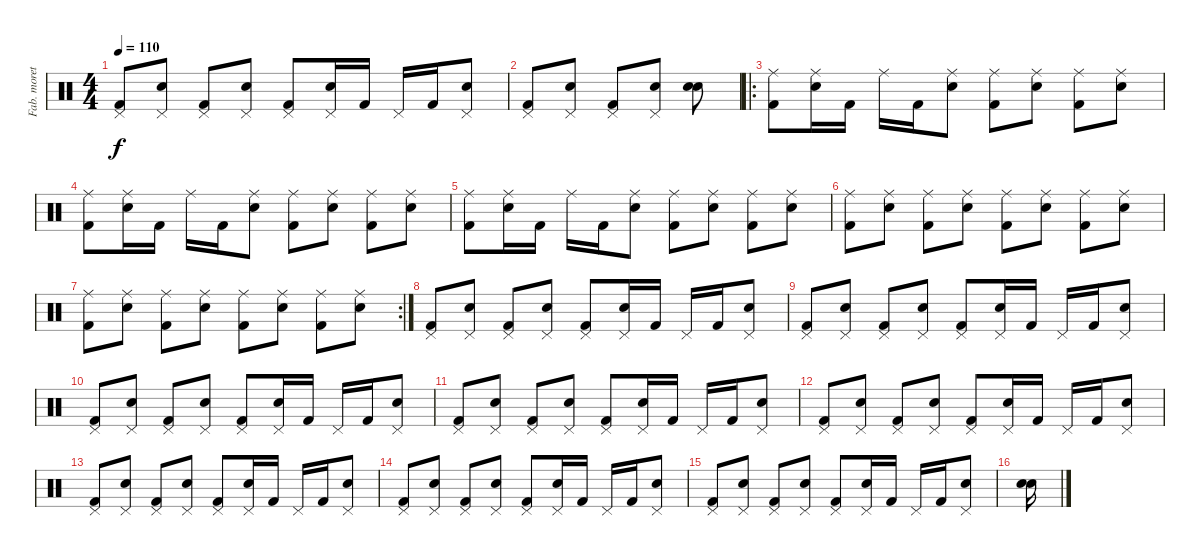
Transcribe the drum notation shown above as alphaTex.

\track ("Fab. moretti" "Fab. moret") {instrument percussion}
\staff {score}
\articulation defaults
\ts (4 4)
\tempo 110
\clef neutral
\ks c
("Pedal Hi-Hat (hit)" "Kick (hit) 2").8{dy f} ("Pedal Hi-Hat (hit)" "Electric Snare (hit)").8 ("Pedal Hi-Hat (hit)" "Kick (hit) 2").8 ("Pedal Hi-Hat (hit)" "Electric Snare (hit)").8 ("Pedal Hi-Hat (hit)" "Kick (hit) 2").8 ("Pedal Hi-Hat (hit)" "Electric Snare (hit)").16 "Kick (hit) 2".16 "Pedal Hi-Hat (hit)".16 "Kick (hit) 2".16 ("Pedal Hi-Hat (hit)" "Electric Snare (hit)").8 |
("Pedal Hi-Hat (hit)" "Kick (hit) 2").8 ("Pedal Hi-Hat (hit)" "Electric Snare (hit)").8 ("Pedal Hi-Hat (hit)" "Kick (hit) 2").8 ("Pedal Hi-Hat (hit)" "Electric Snare (hit)").8 ("Electric Snare (hit)" "Electric Snare (hit)").8 |
\ro
("Ride (middle)" "Kick (hit) 2").8 ("Ride (middle)" "Electric Snare (hit)").16 "Kick (hit) 2".16 "Ride (middle)".16 "Kick (hit) 2".16 ("Ride (middle)" "Electric Snare (hit)").8 ("Ride (middle)" "Kick (hit) 2").8 ("Ride (middle)" "Electric Snare (hit)").8 ("Ride (middle)" "Kick (hit) 2").8 ("Ride (middle)" "Electric Snare (hit)").8 |
("Ride (middle)" "Kick (hit) 2").8 ("Ride (middle)" "Electric Snare (hit)").16 "Kick (hit) 2".16 "Ride (middle)".16 "Kick (hit) 2".16 ("Ride (middle)" "Electric Snare (hit)").8 ("Ride (middle)" "Kick (hit) 2").8 ("Ride (middle)" "Electric Snare (hit)").8 ("Ride (middle)" "Kick (hit) 2").8 ("Ride (middle)" "Electric Snare (hit)").8 |
("Ride (middle)" "Kick (hit) 2").8 ("Ride (middle)" "Electric Snare (hit)").16 "Kick (hit) 2".16 "Ride (middle)".16 "Kick (hit) 2".16 ("Ride (middle)" "Electric Snare (hit)").8 ("Ride (middle)" "Kick (hit) 2").8 ("Ride (middle)" "Electric Snare (hit)").8 ("Ride (middle)" "Kick (hit) 2").8 ("Ride (middle)" "Electric Snare (hit)").8 |
("Ride (middle)" "Kick (hit) 2").8 ("Ride (middle)" "Electric Snare (hit)").8 ("Ride (middle)" "Kick (hit) 2").8 ("Ride (middle)" "Electric Snare (hit)").8 ("Ride (middle)" "Kick (hit) 2").8 ("Ride (middle)" "Electric Snare (hit)").8 ("Ride (middle)" "Kick (hit) 2").8 ("Ride (middle)" "Electric Snare (hit)").8 |
\rc 2
("Ride (middle)" "Kick (hit) 2").8 ("Ride (middle)" "Electric Snare (hit)").8 ("Ride (middle)" "Kick (hit) 2").8 ("Ride (middle)" "Electric Snare (hit)").8 ("Ride (middle)" "Kick (hit) 2").8 ("Ride (middle)" "Electric Snare (hit)").8 ("Ride (middle)" "Kick (hit) 2").8 ("Ride (middle)" "Electric Snare (hit)").8 |
("Pedal Hi-Hat (hit)" "Kick (hit) 2").8 ("Pedal Hi-Hat (hit)" "Electric Snare (hit)").8 ("Pedal Hi-Hat (hit)" "Kick (hit) 2").8 ("Pedal Hi-Hat (hit)" "Electric Snare (hit)").8 ("Pedal Hi-Hat (hit)" "Kick (hit) 2").8 ("Pedal Hi-Hat (hit)" "Electric Snare (hit)").16 "Kick (hit) 2".16 "Pedal Hi-Hat (hit)".16 "Kick (hit) 2".16 ("Pedal Hi-Hat (hit)" "Electric Snare (hit)").8 |
("Pedal Hi-Hat (hit)" "Kick (hit) 2").8 ("Pedal Hi-Hat (hit)" "Electric Snare (hit)").8 ("Pedal Hi-Hat (hit)" "Kick (hit) 2").8 ("Pedal Hi-Hat (hit)" "Electric Snare (hit)").8 ("Pedal Hi-Hat (hit)" "Kick (hit) 2").8 ("Pedal Hi-Hat (hit)" "Electric Snare (hit)").16 "Kick (hit) 2".16 "Pedal Hi-Hat (hit)".16 "Kick (hit) 2".16 ("Pedal Hi-Hat (hit)" "Electric Snare (hit)").8 |
("Pedal Hi-Hat (hit)" "Kick (hit) 2").8 ("Pedal Hi-Hat (hit)" "Electric Snare (hit)").8 ("Pedal Hi-Hat (hit)" "Kick (hit) 2").8 ("Pedal Hi-Hat (hit)" "Electric Snare (hit)").8 ("Pedal Hi-Hat (hit)" "Kick (hit) 2").8 ("Pedal Hi-Hat (hit)" "Electric Snare (hit)").16 "Kick (hit) 2".16 "Pedal Hi-Hat (hit)".16 "Kick (hit) 2".16 ("Pedal Hi-Hat (hit)" "Electric Snare (hit)").8 |
("Pedal Hi-Hat (hit)" "Kick (hit) 2").8 ("Pedal Hi-Hat (hit)" "Electric Snare (hit)").8 ("Pedal Hi-Hat (hit)" "Kick (hit) 2").8 ("Pedal Hi-Hat (hit)" "Electric Snare (hit)").8 ("Pedal Hi-Hat (hit)" "Kick (hit) 2").8 ("Pedal Hi-Hat (hit)" "Electric Snare (hit)").16 "Kick (hit) 2".16 "Pedal Hi-Hat (hit)".16 "Kick (hit) 2".16 ("Pedal Hi-Hat (hit)" "Electric Snare (hit)").8 |
("Pedal Hi-Hat (hit)" "Kick (hit) 2").8 ("Pedal Hi-Hat (hit)" "Electric Snare (hit)").8 ("Pedal Hi-Hat (hit)" "Kick (hit) 2").8 ("Pedal Hi-Hat (hit)" "Electric Snare (hit)").8 ("Pedal Hi-Hat (hit)" "Kick (hit) 2").8 ("Pedal Hi-Hat (hit)" "Electric Snare (hit)").16 "Kick (hit) 2".16 "Pedal Hi-Hat (hit)".16 "Kick (hit) 2".16 ("Pedal Hi-Hat (hit)" "Electric Snare (hit)").8 |
("Pedal Hi-Hat (hit)" "Kick (hit) 2").8 ("Pedal Hi-Hat (hit)" "Electric Snare (hit)").8 ("Pedal Hi-Hat (hit)" "Kick (hit) 2").8 ("Pedal Hi-Hat (hit)" "Electric Snare (hit)").8 ("Pedal Hi-Hat (hit)" "Kick (hit) 2").8 ("Pedal Hi-Hat (hit)" "Electric Snare (hit)").16 "Kick (hit) 2".16 "Pedal Hi-Hat (hit)".16 "Kick (hit) 2".16 ("Pedal Hi-Hat (hit)" "Electric Snare (hit)").8 |
("Pedal Hi-Hat (hit)" "Kick (hit) 2").8 ("Pedal Hi-Hat (hit)" "Electric Snare (hit)").8 ("Pedal Hi-Hat (hit)" "Kick (hit) 2").8 ("Pedal Hi-Hat (hit)" "Electric Snare (hit)").8 ("Pedal Hi-Hat (hit)" "Kick (hit) 2").8 ("Pedal Hi-Hat (hit)" "Electric Snare (hit)").16 "Kick (hit) 2".16 "Pedal Hi-Hat (hit)".16 "Kick (hit) 2".16 ("Pedal Hi-Hat (hit)" "Electric Snare (hit)").8 |
("Pedal Hi-Hat (hit)" "Kick (hit) 2").8 ("Pedal Hi-Hat (hit)" "Electric Snare (hit)").8 ("Pedal Hi-Hat (hit)" "Kick (hit) 2").8 ("Pedal Hi-Hat (hit)" "Electric Snare (hit)").8 ("Pedal Hi-Hat (hit)" "Kick (hit) 2").8 ("Pedal Hi-Hat (hit)" "Electric Snare (hit)").16 "Kick (hit) 2".16 "Pedal Hi-Hat (hit)".16 "Kick (hit) 2".16 ("Pedal Hi-Hat (hit)" "Electric Snare (hit)").8 |
("Electric Snare (hit)" "Electric Snare (hit)").16
